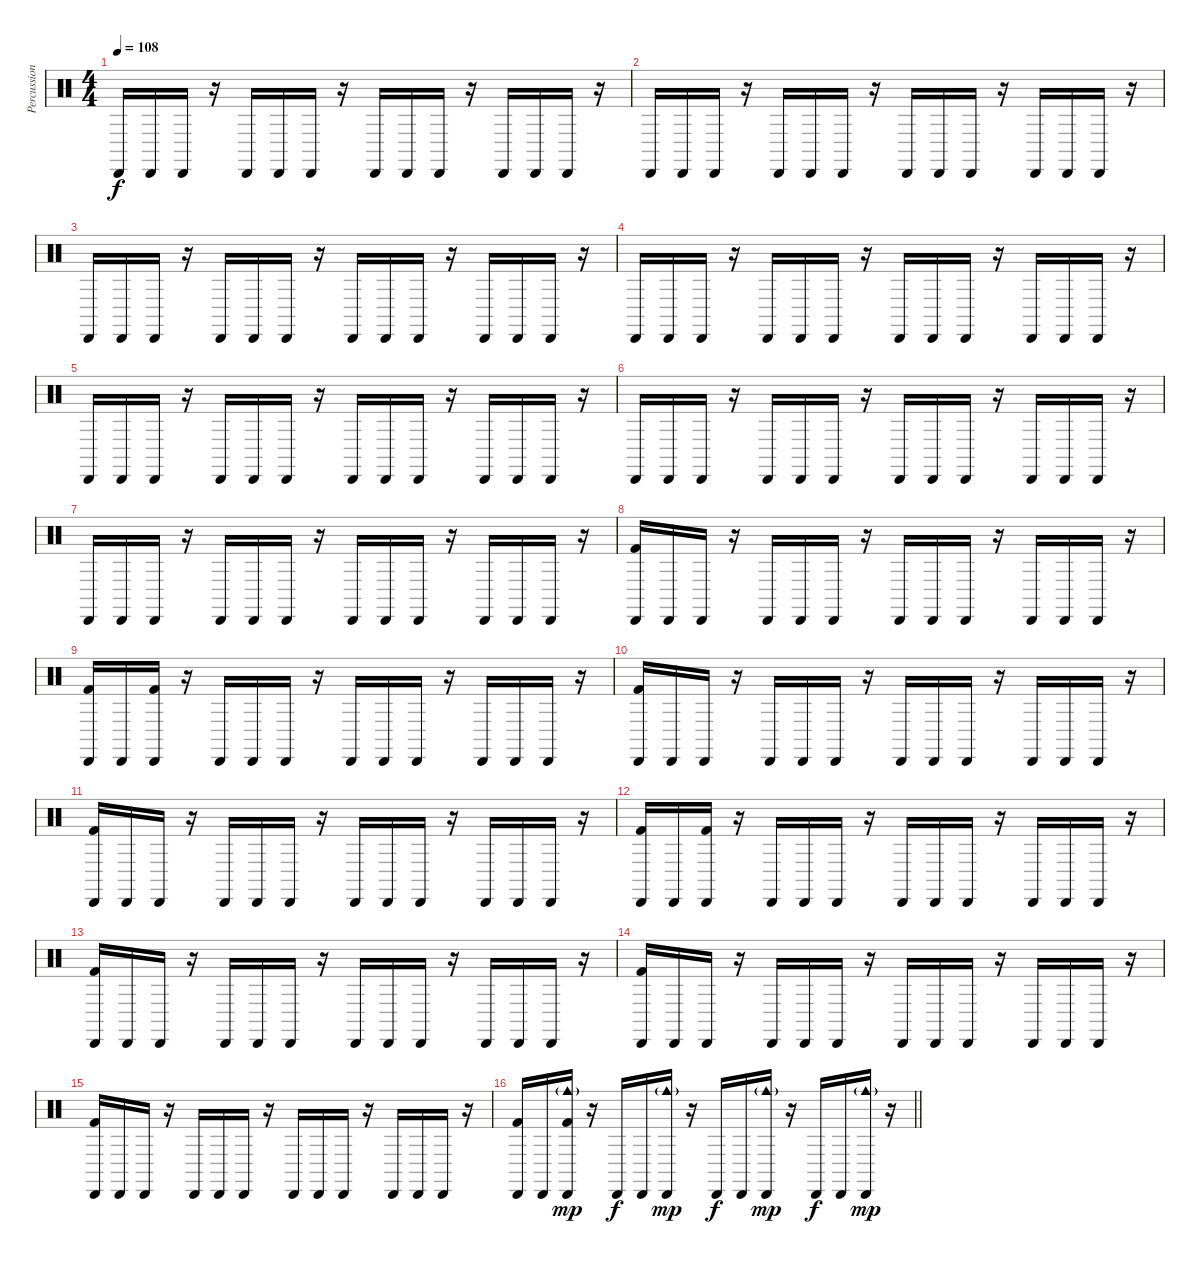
\track ("Percussion" "Percussion") {instrument percussion}
\staff {score}
\articulation defaults
\ts (4 4)
\tempo 108
\clef neutral
\ks c "Cabasa (hit)".16{dy f} "Cabasa (hit)".16 "Cabasa (hit)".16
r.16 "Cabasa (hit)".16 "Cabasa (hit)".16 "Cabasa (hit)".16 r.16 "Cabasa (hit)".16 "Cabasa (hit)".16 "Cabasa (hit)".16 r.16 "Cabasa (hit)".16 "Cabasa (hit)".16 "Cabasa (hit)".16 r.16 |
"Cabasa (hit)".16 "Cabasa (hit)".16 "Cabasa (hit)".16 r.16 "Cabasa (hit)".16 "Cabasa (hit)".16 "Cabasa (hit)".16 r.16 "Cabasa (hit)".16 "Cabasa (hit)".16 "Cabasa (hit)".16 r.16 "Cabasa (hit)".16 "Cabasa (hit)".16 "Cabasa (hit)".16 r.16 |
"Cabasa (hit)".16 "Cabasa (hit)".16 "Cabasa (hit)".16 r.16 "Cabasa (hit)".16 "Cabasa (hit)".16 "Cabasa (hit)".16 r.16 "Cabasa (hit)".16 "Cabasa (hit)".16 "Cabasa (hit)".16 r.16 "Cabasa (hit)".16 "Cabasa (hit)".16 "Cabasa (hit)".16 r.16 |
"Cabasa (hit)".16 "Cabasa (hit)".16 "Cabasa (hit)".16 r.16 "Cabasa (hit)".16 "Cabasa (hit)".16 "Cabasa (hit)".16 r.16 "Cabasa (hit)".16 "Cabasa (hit)".16 "Cabasa (hit)".16 r.16 "Cabasa (hit)".16 "Cabasa (hit)".16 "Cabasa (hit)".16 r.16 |
"Cabasa (hit)".16 "Cabasa (hit)".16 "Cabasa (hit)".16 r.16 "Cabasa (hit)".16 "Cabasa (hit)".16 "Cabasa (hit)".16 r.16 "Cabasa (hit)".16 "Cabasa (hit)".16 "Cabasa (hit)".16 r.16 "Cabasa (hit)".16 "Cabasa (hit)".16 "Cabasa (hit)".16 r.16 |
"Cabasa (hit)".16 "Cabasa (hit)".16 "Cabasa (hit)".16 r.16 "Cabasa (hit)".16 "Cabasa (hit)".16 "Cabasa (hit)".16 r.16 "Cabasa (hit)".16 "Cabasa (hit)".16 "Cabasa (hit)".16 r.16 "Cabasa (hit)".16 "Cabasa (hit)".16 "Cabasa (hit)".16 r.16 |
"Cabasa (hit)".16 "Cabasa (hit)".16 "Cabasa (hit)".16 r.16 "Cabasa (hit)".16 "Cabasa (hit)".16 "Cabasa (hit)".16 r.16 "Cabasa (hit)".16 "Cabasa (hit)".16 "Cabasa (hit)".16 r.16 "Cabasa (hit)".16 "Cabasa (hit)".16 "Cabasa (hit)".16 r.16 |
("Cabasa (hit)" "Kick (hit) 2").16 "Cabasa (hit)".16 "Cabasa (hit)".16 r.16 "Cabasa (hit)".16 "Cabasa (hit)".16 "Cabasa (hit)".16 r.16 "Cabasa (hit)".16 "Cabasa (hit)".16 "Cabasa (hit)".16 r.16 "Cabasa (hit)".16 "Cabasa (hit)".16 "Cabasa (hit)".16 r.16 |
("Cabasa (hit)" "Kick (hit) 2").16 "Cabasa (hit)".16 ("Cabasa (hit)" "Kick (hit) 2").16 r.16 "Cabasa (hit)".16 "Cabasa (hit)".16 "Cabasa (hit)".16 r.16 "Cabasa (hit)".16 "Cabasa (hit)".16 "Cabasa (hit)".16 r.16 "Cabasa (hit)".16 "Cabasa (hit)".16 "Cabasa (hit)".16 r.16 |
("Cabasa (hit)" "Kick (hit) 2").16 "Cabasa (hit)".16 "Cabasa (hit)".16 r.16 "Cabasa (hit)".16 "Cabasa (hit)".16 "Cabasa (hit)".16 r.16 "Cabasa (hit)".16 "Cabasa (hit)".16 "Cabasa (hit)".16 r.16 "Cabasa (hit)".16 "Cabasa (hit)".16 "Cabasa (hit)".16 r.16 |
("Cabasa (hit)" "Kick (hit) 2").16 "Cabasa (hit)".16 "Cabasa (hit)".16 r.16 "Cabasa (hit)".16 "Cabasa (hit)".16 "Cabasa (hit)".16 r.16 "Cabasa (hit)".16 "Cabasa (hit)".16 "Cabasa (hit)".16 r.16 "Cabasa (hit)".16 "Cabasa (hit)".16 "Cabasa (hit)".16 r.16 |
("Cabasa (hit)" "Kick (hit) 2").16 "Cabasa (hit)".16 ("Cabasa (hit)" "Kick (hit) 2").16 r.16 "Cabasa (hit)".16 "Cabasa (hit)".16 "Cabasa (hit)".16 r.16 "Cabasa (hit)".16 "Cabasa (hit)".16 "Cabasa (hit)".16 r.16 "Cabasa (hit)".16 "Cabasa (hit)".16 "Cabasa (hit)".16 r.16 |
("Cabasa (hit)" "Kick (hit) 2").16 "Cabasa (hit)".16 "Cabasa (hit)".16 r.16 "Cabasa (hit)".16 "Cabasa (hit)".16 "Cabasa (hit)".16 r.16 "Cabasa (hit)".16 "Cabasa (hit)".16 "Cabasa (hit)".16 r.16 "Cabasa (hit)".16 "Cabasa (hit)".16 "Cabasa (hit)".16 r.16 |
("Cabasa (hit)" "Kick (hit) 2").16 "Cabasa (hit)".16 "Cabasa (hit)".16 r.16 "Cabasa (hit)".16 "Cabasa (hit)".16 "Cabasa (hit)".16 r.16 "Cabasa (hit)".16 "Cabasa (hit)".16 "Cabasa (hit)".16 r.16 "Cabasa (hit)".16 "Cabasa (hit)".16 "Cabasa (hit)".16 r.16 |
("Cabasa (hit)" "Kick (hit) 2").16 "Cabasa (hit)".16 "Cabasa (hit)".16 r.16 "Cabasa (hit)".16 "Cabasa (hit)".16 "Cabasa (hit)".16 r.16 "Cabasa (hit)".16 "Cabasa (hit)".16 "Cabasa (hit)".16 r.16 "Cabasa (hit)".16 "Cabasa (hit)".16 "Cabasa (hit)".16 r.16 |
\barLineRight lightlight
("Cabasa (hit)" "Kick (hit) 2").16 "Cabasa (hit)".16 ("Cowbell medium (hit)"{g} "Cabasa (hit)" "Kick (hit) 2").16{dy mp} r.16 "Cabasa (hit)".16{dy f} "Cabasa (hit)".16 ("Cowbell medium (hit)"{g} "Cabasa (hit)").16{dy mp} r.16 "Cabasa (hit)".16{dy f} "Cabasa (hit)".16 ("Cowbell medium (hit)"{g} "Cabasa (hit)").16{dy mp} r.16 "Cabasa (hit)".16{dy f} "Cabasa (hit)".16 ("Cowbell medium (hit)"{g} "Cabasa (hit)").16{dy mp} r.16
